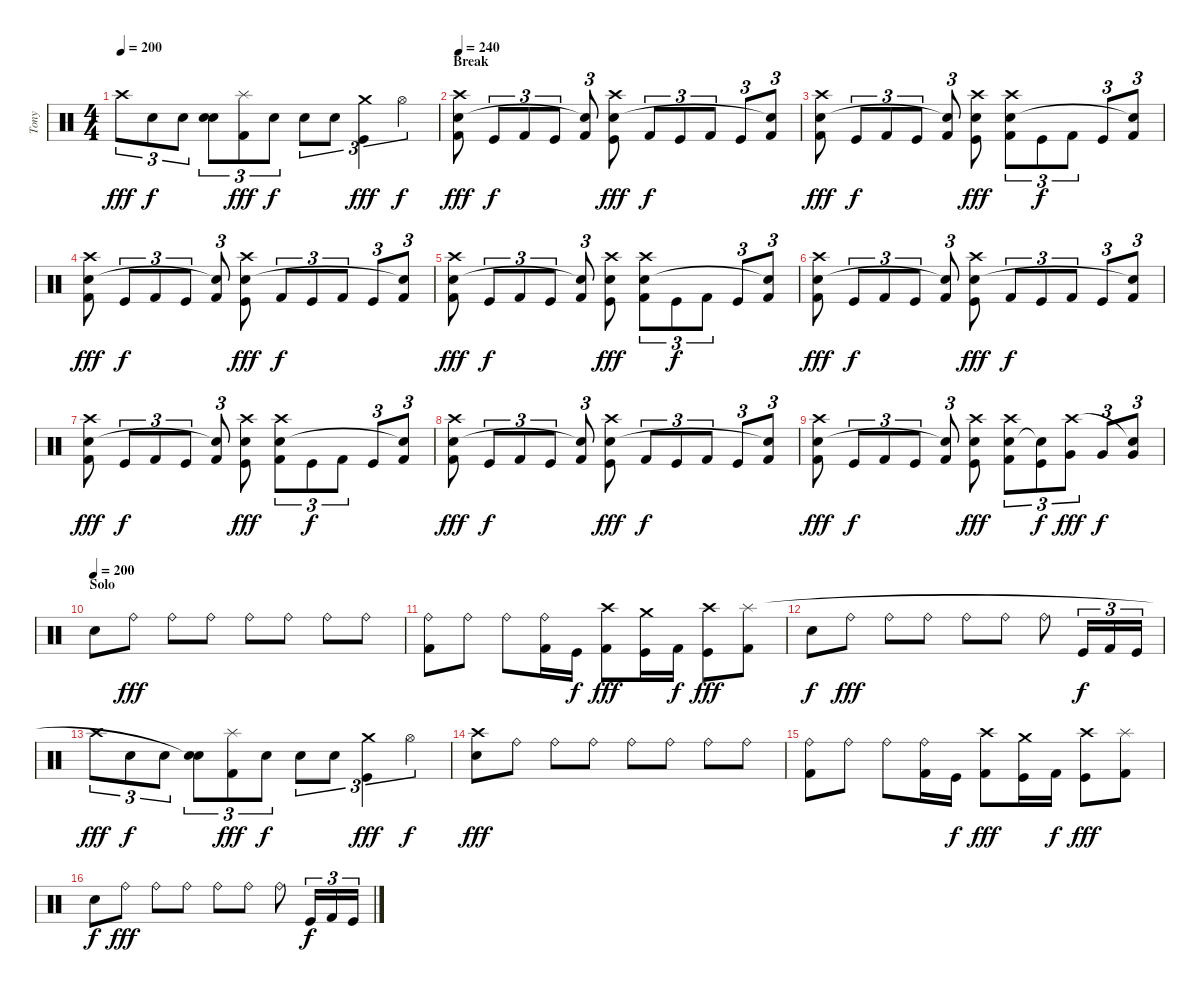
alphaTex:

\track ("Tony" "Tony") {instrument percussion}
\staff {score}
\articulation defaults
\ts (4 4)
\tempo 200
\clef neutral
\ks c "Crash high (hit)".8{tu (3 2) dy fff} "Snare (hit) 2".8{tu (3 2) dy f} "Snare (hit) 2".8{tu (3 2)}
("Snare (hit) 2" "Snare (hit)"{t}).8{tu (3 2)} ("Kick (hit) 2" "Splash (hit)").8{tu (3 2) dy fff} "Snare (hit) 2".8{tu (3 2) dy f} "Snare (hit) 2".8{tu (3 2)} "Snare (hit) 2".8{tu (3 2)} ("Kick (hit)" "Crash medium (hit)").4{tu (3 2) dy fff} "Hi-Hat (open)".4{tu (3 2) dy f} |
\section ("" "Break")
\tempo 240
("Kick (hit) 2" "Snare (hit) 2" "Crash high (hit)").8{dy fff} "Kick (hit)".8{tu (3 2) dy f} "Kick (hit) 2".8{tu (3 2)} "Kick (hit)".8{tu (3 2)} ("Kick (hit) 2" "Snare (hit)"{t}).8{tu (3 2)} ("Kick (hit)" "Snare (hit) 2" "Crash high (hit)").8{dy fff} "Kick (hit) 2".8{tu (3 2) dy f} "Kick (hit)".8{tu (3 2)} "Kick (hit) 2".8{tu (3 2)} "Kick (hit)".8{tu (3 2)} ("Kick (hit) 2" "Snare (hit)"{t}).8{tu (3 2)} |
("Kick (hit) 2" "Snare (hit) 2" "Crash high (hit)").8{dy fff} "Kick (hit)".8{tu (3 2) dy f} "Kick (hit) 2".8{tu (3 2)} "Kick (hit)".8{tu (3 2)} ("Kick (hit) 2" "Snare (hit)"{t}).8{tu (3 2)} ("Kick (hit)" "Snare (hit) 2" "Crash high (hit)").8{dy fff} ("Kick (hit) 2" "Snare (hit) 2" "Crash high (hit)").8{tu (3 2)} "Kick (hit)".8{tu (3 2) dy f} "Kick (hit) 2".8{tu (3 2)} "Kick (hit)".8{tu (3 2)} ("Kick (hit) 2" "Snare (hit)"{t}).8{tu (3 2)} |
("Kick (hit) 2" "Snare (hit) 2" "Crash high (hit)").8{dy fff} "Kick (hit)".8{tu (3 2) dy f} "Kick (hit) 2".8{tu (3 2)} "Kick (hit)".8{tu (3 2)} ("Kick (hit) 2" "Snare (hit)"{t}).8{tu (3 2)} ("Kick (hit)" "Snare (hit) 2" "Crash high (hit)").8{dy fff} "Kick (hit) 2".8{tu (3 2) dy f} "Kick (hit)".8{tu (3 2)} "Kick (hit) 2".8{tu (3 2)} "Kick (hit)".8{tu (3 2)} ("Kick (hit) 2" "Snare (hit)"{t}).8{tu (3 2)} |
("Kick (hit) 2" "Snare (hit) 2" "Crash high (hit)").8{dy fff} "Kick (hit)".8{tu (3 2) dy f} "Kick (hit) 2".8{tu (3 2)} "Kick (hit)".8{tu (3 2)} ("Kick (hit) 2" "Snare (hit)"{t}).8{tu (3 2)} ("Kick (hit)" "Snare (hit) 2" "Crash high (hit)").8{dy fff} ("Kick (hit) 2" "Snare (hit) 2" "Crash high (hit)").8{tu (3 2)} "Kick (hit)".8{tu (3 2) dy f} "Kick (hit) 2".8{tu (3 2)} "Kick (hit)".8{tu (3 2)} ("Kick (hit) 2" "Snare (hit)"{t}).8{tu (3 2)} |
("Kick (hit) 2" "Snare (hit) 2" "Crash high (hit)").8{dy fff} "Kick (hit)".8{tu (3 2) dy f} "Kick (hit) 2".8{tu (3 2)} "Kick (hit)".8{tu (3 2)} ("Kick (hit) 2" "Snare (hit)"{t}).8{tu (3 2)} ("Kick (hit)" "Snare (hit) 2" "Crash high (hit)").8{dy fff} "Kick (hit) 2".8{tu (3 2) dy f} "Kick (hit)".8{tu (3 2)} "Kick (hit) 2".8{tu (3 2)} "Kick (hit)".8{tu (3 2)} ("Kick (hit) 2" "Snare (hit)"{t}).8{tu (3 2)} |
("Kick (hit) 2" "Snare (hit) 2" "Crash high (hit)").8{dy fff} "Kick (hit)".8{tu (3 2) dy f} "Kick (hit) 2".8{tu (3 2)} "Kick (hit)".8{tu (3 2)} ("Kick (hit) 2" "Snare (hit)"{t}).8{tu (3 2)} ("Kick (hit)" "Snare (hit) 2" "Crash high (hit)").8{dy fff} ("Kick (hit) 2" "Snare (hit) 2" "Crash high (hit)").8{tu (3 2)} "Kick (hit)".8{tu (3 2) dy f} "Kick (hit) 2".8{tu (3 2)} "Kick (hit)".8{tu (3 2)} ("Kick (hit) 2" "Snare (hit)"{t}).8{tu (3 2)} |
("Kick (hit) 2" "Snare (hit) 2" "Crash high (hit)").8{dy fff} "Kick (hit)".8{tu (3 2) dy f} "Kick (hit) 2".8{tu (3 2)} "Kick (hit)".8{tu (3 2)} ("Kick (hit) 2" "Snare (hit)"{t}).8{tu (3 2)} ("Kick (hit)" "Snare (hit) 2" "Crash high (hit)").8{dy fff} "Kick (hit) 2".8{tu (3 2) dy f} "Kick (hit)".8{tu (3 2)} "Kick (hit) 2".8{tu (3 2)} "Kick (hit)".8{tu (3 2)} ("Kick (hit) 2" "Snare (hit)"{t}).8{tu (3 2)} |
("Kick (hit) 2" "Snare (hit) 2" "Crash high (hit)").8{dy fff} "Kick (hit)".8{tu (3 2) dy f} "Kick (hit) 2".8{tu (3 2)} "Kick (hit)".8{tu (3 2)} ("Kick (hit) 2" "Snare (hit)"{t}).8{tu (3 2)} ("Kick (hit)" "Snare (hit) 2" "Crash high (hit)").8{dy fff} ("Kick (hit) 2" "Snare (hit) 2" "Crash high (hit)").8{tu (3 2)} ("Kick (hit)" "Snare (hit)"{t}).8{tu (3 2) dy f} ("Very Low Tom (hit)" "Crash high (hit)").8{tu (3 2) dy fff} "Very Low Tom (hit)".8{tu (3 2) dy f} ("Very Low Tom (hit)" "Snare (hit)"{t}).8{tu (3 2)} |
\section ("" "Solo")
\tempo (200)
"Snare (hit) 2".8 "Ride (bell)".8{dy fff} "Ride (bell)".8 "Ride (bell)".8 "Ride (bell)".8 "Ride (bell)".8 "Ride (bell)".8 "Ride (bell)".8 |
("Kick (hit) 2" "Ride (bell)").8 "Ride (bell)".8 "Ride (bell)".8 ("Kick (hit) 2" "Ride (bell)").16 "Kick (hit)".16{dy f} ("Kick (hit) 2" "Crash high (hit)").8{dy fff} ("Kick (hit)" "Crash medium (hit)").16 "Kick (hit) 2".16{dy f} ("Kick (hit)" "Crash high (hit)").8{dy fff} ("Kick (hit) 2" "Splash (hit)").8 |
"Snare (hit) 2".8{dy f} "Ride (bell)".8{dy fff} "Ride (bell)".8 "Ride (bell)".8 "Ride (bell)".8 "Ride (bell)".8 "Ride (bell)".8 "Kick (hit)".16{tu (3 2) dy f} "Kick (hit) 2".16{tu (3 2)} "Kick (hit)".16{tu (3 2)} |
"Crash high (hit)".8{tu (3 2) dy fff} "Snare (hit) 2".8{tu (3 2) dy f} "Snare (hit) 2".8{tu (3 2)} ("Snare (hit) 2" "Snare (hit)"{t}).8{tu (3 2)} ("Kick (hit) 2" "Splash (hit)").8{tu (3 2) dy fff} "Snare (hit) 2".8{tu (3 2) dy f} "Snare (hit) 2".8{tu (3 2)} "Snare (hit) 2".8{tu (3 2)} ("Kick (hit)" "Crash medium (hit)").4{tu (3 2) dy fff} "Hi-Hat (open)".4{tu (3 2) dy f} |
("Snare (hit) 2" "Crash high (hit)").8{dy fff} "Ride (bell)".8 "Ride (bell)".8 "Ride (bell)".8 "Ride (bell)".8 "Ride (bell)".8 "Ride (bell)".8 "Ride (bell)".8 |
("Kick (hit) 2" "Ride (bell)").8 "Ride (bell)".8 "Ride (bell)".8 ("Kick (hit) 2" "Ride (bell)").16 "Kick (hit)".16{dy f} ("Kick (hit) 2" "Crash high (hit)").8{dy fff} ("Kick (hit)" "Crash medium (hit)").16 "Kick (hit) 2".16{dy f} ("Kick (hit)" "Crash high (hit)").8{dy fff} ("Kick (hit) 2" "Splash (hit)").8 |
"Snare (hit) 2".8{dy f} "Ride (bell)".8{dy fff} "Ride (bell)".8 "Ride (bell)".8 "Ride (bell)".8 "Ride (bell)".8 "Ride (bell)".8 "Kick (hit)".16{tu (3 2) dy f} "Kick (hit) 2".16{tu (3 2)} "Kick (hit)".16{tu (3 2)}
